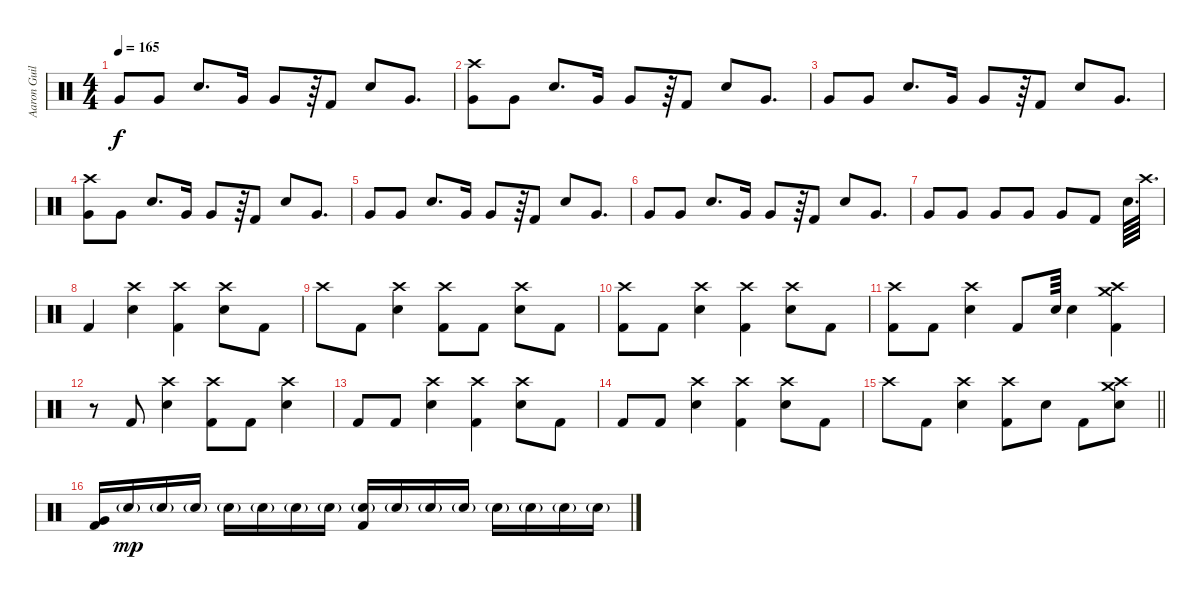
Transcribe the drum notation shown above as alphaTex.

\track ("Aaron Guillespie" "Aaron Guil") {instrument percussion}
\staff {score}
\articulation defaults
\ts (4 4)
\tempo 165
\clef neutral
\ks c "Very Low Tom (hit)".8{dy f} "Very Low Tom (hit)".8 "Electric Snare (hit)".8{d} "Very Low Tom (hit)".16 "Very Low Tom (hit)".8
r.64 "Kick (hit) 2".8 "Electric Snare (hit)".8 "Very Low Tom (hit)".8{d} |
("Crash high (hit)" "Very Low Tom (hit)").8 "Very Low Tom (hit)".8 "Electric Snare (hit)".8{d} "Very Low Tom (hit)".16 "Very Low Tom (hit)".8 r.64 "Kick (hit) 2".8 "Electric Snare (hit)".8 "Very Low Tom (hit)".8{d} |
"Very Low Tom (hit)".8 "Very Low Tom (hit)".8 "Electric Snare (hit)".8{d} "Very Low Tom (hit)".16 "Very Low Tom (hit)".8 r.64 "Kick (hit) 2".8 "Electric Snare (hit)".8 "Very Low Tom (hit)".8{d} |
("Crash high (hit)" "Very Low Tom (hit)").8 "Very Low Tom (hit)".8 "Electric Snare (hit)".8{d} "Very Low Tom (hit)".16 "Very Low Tom (hit)".8 r.64 "Kick (hit) 2".8 "Electric Snare (hit)".8 "Very Low Tom (hit)".8{d} |
"Very Low Tom (hit)".8 "Very Low Tom (hit)".8 "Electric Snare (hit)".8{d} "Very Low Tom (hit)".16 "Very Low Tom (hit)".8 r.64 "Kick (hit) 2".8 "Electric Snare (hit)".8 "Very Low Tom (hit)".8{d} |
"Very Low Tom (hit)".8 "Very Low Tom (hit)".8 "Electric Snare (hit)".8{d} "Very Low Tom (hit)".16 "Very Low Tom (hit)".8 r.64 "Kick (hit) 2".8 "Electric Snare (hit)".8 "Very Low Tom (hit)".8{d} |
"Very Low Tom (hit)".8 "Very Low Tom (hit)".8 "Very Low Tom (hit)".8 "Very Low Tom (hit)".8 "Very Low Tom (hit)".8 "Kick (hit) 2".8 "Electric Snare (hit)".64{d} "Crash high (hit)".64{d} |
"Kick (hit) 2".4 ("Crash high (hit)" "Electric Snare (hit)").4 ("Crash high (hit)" "Kick (hit) 2").4 ("Crash high (hit)" "Electric Snare (hit)").8 "Kick (hit) 2".8 |
"Crash high (hit)".8 "Kick (hit) 2".8 ("Crash high (hit)" "Electric Snare (hit)").4 ("Crash high (hit)" "Kick (hit) 2").8 "Kick (hit) 2".8 ("Crash high (hit)" "Electric Snare (hit)").8 "Kick (hit) 2".8 |
("Crash high (hit)" "Kick (hit) 2").8 "Kick (hit) 2".8 ("Crash high (hit)" "Electric Snare (hit)").4 ("Crash high (hit)" "Kick (hit) 2").4 ("Crash high (hit)" "Electric Snare (hit)").8 "Kick (hit) 2".8 |
("Crash high (hit)" "Kick (hit) 2").8 "Kick (hit) 2".8 ("Crash high (hit)" "Electric Snare (hit)").4 "Kick (hit) 2".8 "Electric Snare (hit)".64 "Electric Snare (hit)".4 ("Crash high (hit)" "Crash medium (hit)" "Kick (hit) 2").4 |
r.8 "Kick (hit) 2".8 ("Crash high (hit)" "Electric Snare (hit)").4 ("Crash high (hit)" "Kick (hit) 2").8 "Kick (hit) 2".8 ("Crash high (hit)" "Electric Snare (hit)").4 |
"Kick (hit) 2".8 "Kick (hit) 2".8 ("Crash high (hit)" "Electric Snare (hit)").4 ("Crash high (hit)" "Kick (hit) 2").4 ("Crash high (hit)" "Electric Snare (hit)").8 "Kick (hit) 2".8 |
"Kick (hit) 2".8 "Kick (hit) 2".8 ("Crash high (hit)" "Electric Snare (hit)").4 ("Crash high (hit)" "Kick (hit) 2").4 ("Crash high (hit)" "Electric Snare (hit)").8 "Kick (hit) 2".8 |
\barLineRight lightlight "Crash high (hit)".8 "Kick (hit) 2".8
("Crash high (hit)" "Electric Snare (hit)").4 ("Crash high (hit)" "Kick (hit) 2").8 "Electric Snare (hit)".8 "Kick (hit) 2".8 ("Crash high (hit)" "Crash medium (hit)" "Electric Snare (hit)").8 |
\section ("" "")
("Very Low Tom (hit)" "Kick (hit) 2").16 "Electric Snare (hit)"{g}.16{dy mp} "Electric Snare (hit)"{g}.16 "Electric Snare (hit)"{g}.16 "Electric Snare (hit)"{g}.16 "Electric Snare (hit)"{g}.16 "Electric Snare (hit)"{g}.16 "Electric Snare (hit)"{g}.16 ("Electric Snare (hit)"{g} "Kick (hit) 2").16 "Electric Snare (hit)"{g}.16 "Electric Snare (hit)"{g}.16 "Electric Snare (hit)"{g}.16 "Electric Snare (hit)"{g}.16 "Electric Snare (hit)"{g}.16 "Electric Snare (hit)"{g}.16 "Electric Snare (hit)"{g}.16
